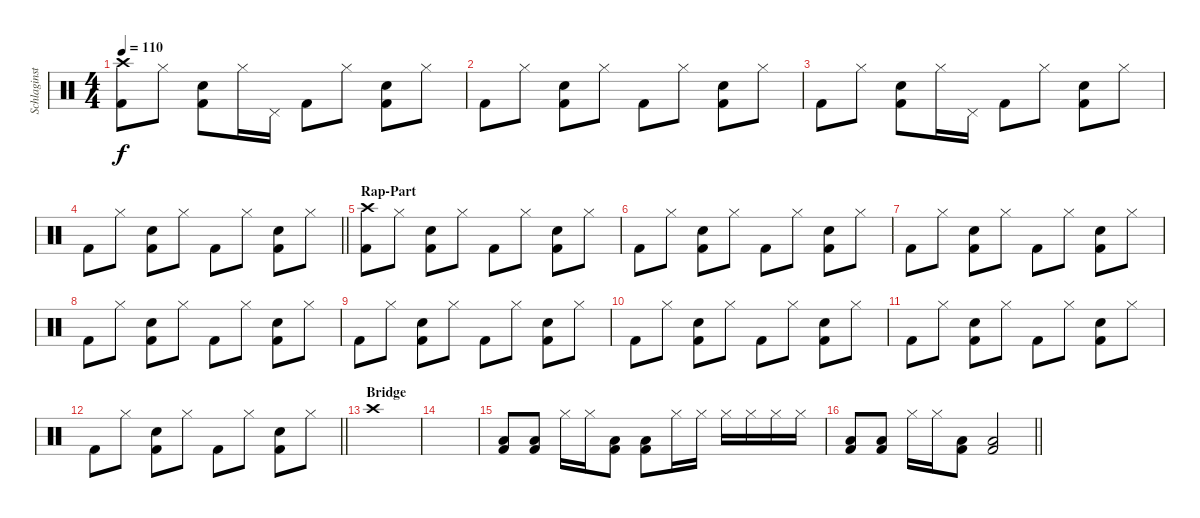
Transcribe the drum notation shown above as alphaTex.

\track ("Schlaginstrumente - Auswahl" "Schlaginst") {instrument percussion}
\staff {score}
\articulation defaults
\ts (4 4)
\tempo 110
\clef neutral
\ks c
("Crash high (hit)" "Kick (hit) 2").8{dy f} "Hi-Hat (closed)".8 ("Snare (hit) 2" "Kick (hit) 2").8 "Hi-Hat (closed)".16 "Pedal Hi-Hat (hit)".16 "Kick (hit) 2".8 "Hi-Hat (closed)".8 ("Snare (hit) 2" "Kick (hit) 2").8 "Hi-Hat (closed)".8 |
"Kick (hit) 2".8 "Hi-Hat (closed)".8 ("Snare (hit) 2" "Kick (hit) 2").8 "Hi-Hat (closed)".8 "Kick (hit) 2".8 "Hi-Hat (closed)".8 ("Snare (hit) 2" "Kick (hit) 2").8 "Hi-Hat (closed)".8 |
"Kick (hit) 2".8 "Hi-Hat (closed)".8 ("Snare (hit) 2" "Kick (hit) 2").8 "Hi-Hat (closed)".16 "Pedal Hi-Hat (hit)".16 "Kick (hit) 2".8 "Hi-Hat (closed)".8 ("Snare (hit) 2" "Kick (hit) 2").8 "Hi-Hat (closed)".8 |
\barLineRight lightlight "Kick (hit) 2".8 "Hi-Hat (closed)".8
("Snare (hit) 2" "Kick (hit) 2").8 "Hi-Hat (closed)".8 "Kick (hit) 2".8 "Hi-Hat (closed)".8 ("Snare (hit) 2" "Kick (hit) 2").8 "Hi-Hat (closed)".8 |
\section ("" "Rap-Part")
("Crash high (hit)" "Kick (hit) 2").8 "Hi-Hat (closed)".8 ("Snare (hit) 2" "Kick (hit) 2").8 "Hi-Hat (closed)".8 "Kick (hit) 2".8 "Hi-Hat (closed)".8 ("Snare (hit) 2" "Kick (hit) 2").8 "Hi-Hat (closed)".8 |
"Kick (hit) 2".8 "Hi-Hat (closed)".8 ("Snare (hit) 2" "Kick (hit) 2").8 "Hi-Hat (closed)".8 "Kick (hit) 2".8 "Hi-Hat (closed)".8 ("Snare (hit) 2" "Kick (hit) 2").8 "Hi-Hat (closed)".8 |
"Kick (hit) 2".8 "Hi-Hat (closed)".8 ("Snare (hit) 2" "Kick (hit) 2").8 "Hi-Hat (closed)".8 "Kick (hit) 2".8 "Hi-Hat (closed)".8 ("Snare (hit) 2" "Kick (hit) 2").8 "Hi-Hat (closed)".8 |
"Kick (hit) 2".8 "Hi-Hat (closed)".8 ("Snare (hit) 2" "Kick (hit) 2").8 "Hi-Hat (closed)".8 "Kick (hit) 2".8 "Hi-Hat (closed)".8 ("Snare (hit) 2" "Kick (hit) 2").8 "Hi-Hat (closed)".8 |
"Kick (hit) 2".8 "Hi-Hat (closed)".8 ("Snare (hit) 2" "Kick (hit) 2").8 "Hi-Hat (closed)".8 "Kick (hit) 2".8 "Hi-Hat (closed)".8 ("Snare (hit) 2" "Kick (hit) 2").8 "Hi-Hat (closed)".8 |
"Kick (hit) 2".8 "Hi-Hat (closed)".8 ("Snare (hit) 2" "Kick (hit) 2").8 "Hi-Hat (closed)".8 "Kick (hit) 2".8 "Hi-Hat (closed)".8 ("Snare (hit) 2" "Kick (hit) 2").8 "Hi-Hat (closed)".8 |
"Kick (hit) 2".8 "Hi-Hat (closed)".8 ("Snare (hit) 2" "Kick (hit) 2").8 "Hi-Hat (closed)".8 "Kick (hit) 2".8 "Hi-Hat (closed)".8 ("Snare (hit) 2" "Kick (hit) 2").8 "Hi-Hat (closed)".8 |
\barLineRight lightlight "Kick (hit) 2".8 "Hi-Hat (closed)".8
("Snare (hit) 2" "Kick (hit) 2").8 "Hi-Hat (closed)".8 "Kick (hit) 2".8 "Hi-Hat (closed)".8 ("Snare (hit) 2" "Kick (hit) 2").8 "Hi-Hat (closed)".8 |
\section ("" "Bridge")
"Crash high (hit)".1 |
|
("Low Tom (hit)" "Kick (hit) 2").8 ("Low Tom (hit)" "Kick (hit) 2").8 "Hi-Hat (closed)".16 "Hi-Hat (closed)".16 ("Low Tom (hit)" "Kick (hit) 2").8 ("Low Tom (hit)" "Kick (hit) 2").8 "Hi-Hat (closed)".16 "Hi-Hat (closed)".16 "Hi-Hat (closed)".16 "Hi-Hat (closed)".16 "Hi-Hat (closed)".16 "Hi-Hat (closed)".16 |
\barLineRight lightlight
("Low Tom (hit)" "Kick (hit) 2").8 ("Low Tom (hit)" "Kick (hit) 2").8 "Hi-Hat (closed)".16 "Hi-Hat (closed)".16 ("Low Tom (hit)" "Kick (hit) 2").8 ("Low Tom (hit)" "Kick (hit) 2").2
